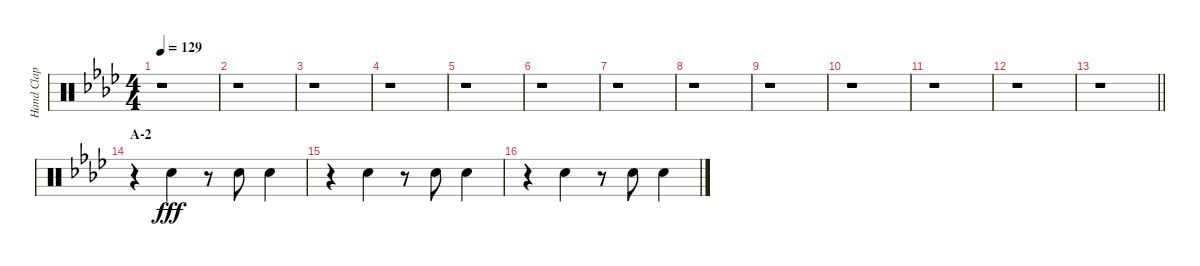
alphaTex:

\track ("Hand Clap" "Hand Clap") {instrument percussion}
\staff {score}
\articulation defaults
\ts (4 4)
\tempo 129
\clef neutral
\ks ab
r.1{dy fff} |
r.1 |
r.1 |
r.1 |
r.1 |
r.1 |
r.1 |
r.1 |
r.1 |
r.1 |
r.1 |
r.1 |
\barLineRight lightlight
r.1 |
\section ("" "A-2")
r.4 "Hand Clap (hit)".4 r.8 "Hand Clap (hit)".8 "Hand Clap (hit)".4 |
r.4 "Hand Clap (hit)".4 r.8 "Hand Clap (hit)".8 "Hand Clap (hit)".4 |
r.4 "Hand Clap (hit)".4 r.8 "Hand Clap (hit)".8 "Hand Clap (hit)".4
